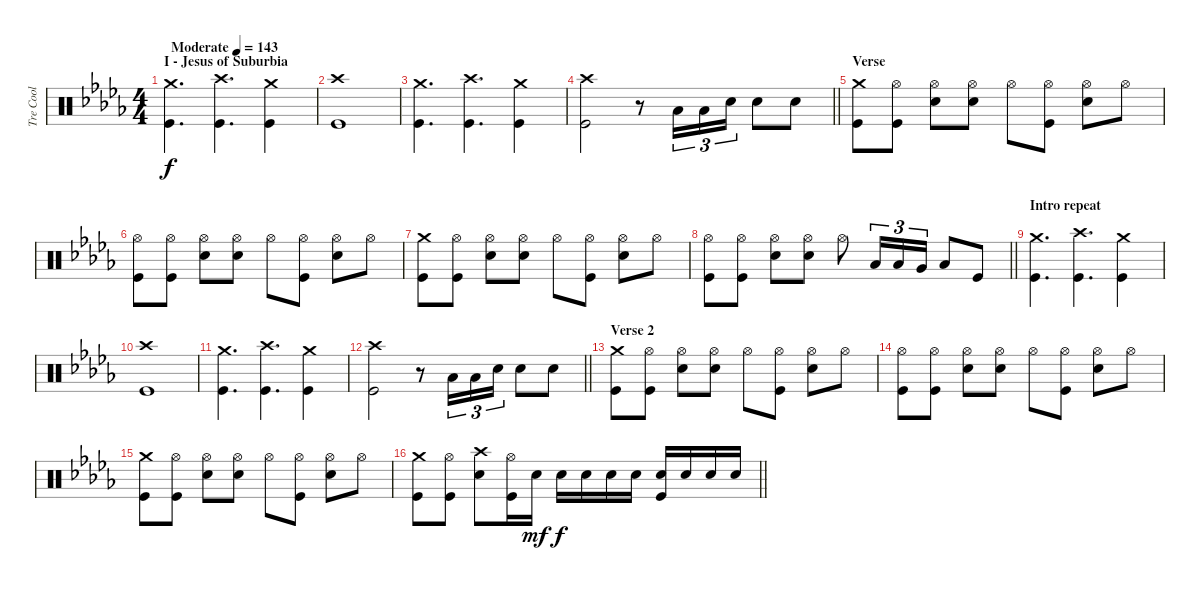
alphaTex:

\track ("Tre Cool" "Tre Cool") {instrument percussion}
\staff {score}
\articulation defaults
\ts (4 4)
\section ("" "I - Jesus of Suburbia")
\tempo (143 "Moderate")
\clef neutral
\ks db
("Crash medium (hit)" "Kick (hit)").4{d dy f} ("Crash high (hit)" "Kick (hit)").4{d} ("Crash medium (hit)" "Kick (hit)").4 |
("Crash high (hit)" "Kick (hit)").1 |
("Crash medium (hit)" "Kick (hit)").4{d} ("Crash high (hit)" "Kick (hit)").4{d} ("Crash medium (hit)" "Kick (hit)").4 |
\barLineRight lightlight
("Crash high (hit)" "Kick (hit)").2 r.8 "Low Tom (hit)".16{tu (3 2)} "Low Tom (hit)".16{tu (3 2)} "Electric Snare (hit)".16{tu (3 2)} "Electric Snare (hit)".8 "Electric Snare (hit)".8 |
\section ("" "Verse")
("Crash medium (hit)" "Kick (hit)").8 ("Hi-Hat (open)" "Kick (hit)").8 ("Hi-Hat (open)" "Electric Snare (hit)").8 ("Hi-Hat (open)" "Electric Snare (hit)").8 "Hi-Hat (open)".8 ("Hi-Hat (open)" "Kick (hit)").8 ("Hi-Hat (open)" "Electric Snare (hit)").8 "Hi-Hat (open)".8 |
("Hi-Hat (open)" "Kick (hit)").8 ("Hi-Hat (open)" "Kick (hit)").8 ("Hi-Hat (open)" "Electric Snare (hit)").8 ("Hi-Hat (open)" "Electric Snare (hit)").8 "Hi-Hat (open)".8 ("Hi-Hat (open)" "Kick (hit)").8 ("Hi-Hat (open)" "Electric Snare (hit)").8 "Hi-Hat (open)".8 |
("Crash medium (hit)" "Kick (hit)").8 ("Hi-Hat (open)" "Kick (hit)").8 ("Hi-Hat (open)" "Electric Snare (hit)").8 ("Hi-Hat (open)" "Electric Snare (hit)").8 "Hi-Hat (open)".8 ("Hi-Hat (open)" "Kick (hit)").8 ("Hi-Hat (open)" "Electric Snare (hit)").8 "Hi-Hat (open)".8 |
\barLineRight lightlight
("Hi-Hat (open)" "Kick (hit)").8 ("Hi-Hat (open)" "Kick (hit)").8 ("Hi-Hat (open)" "Electric Snare (hit)").8 ("Hi-Hat (open)" "Electric Snare (hit)").8 "Hi-Hat (open)".8 "Low Tom (hit)".16{tu (3 2)} "Low Tom (hit)".16{tu (3 2)} "Very Low Tom (hit)".16{tu (3 2)} "Low Floor Tom (hit)".8 "Kick (hit)".8 |
\section ("" "Intro repeat")
("Crash medium (hit)" "Kick (hit)").4{d} ("Crash high (hit)" "Kick (hit)").4{d} ("Crash medium (hit)" "Kick (hit)").4 |
("Crash high (hit)" "Kick (hit)").1 |
("Crash medium (hit)" "Kick (hit)").4{d} ("Crash high (hit)" "Kick (hit)").4{d} ("Crash medium (hit)" "Kick (hit)").4 |
\barLineRight lightlight
("Crash high (hit)" "Kick (hit)").2 r.8 "Low Tom (hit)".16{tu (3 2)} "Low Tom (hit)".16{tu (3 2)} "Electric Snare (hit)".16{tu (3 2)} "Electric Snare (hit)".8 "Electric Snare (hit)".8 |
\section ("" "Verse 2")
("Crash medium (hit)" "Kick (hit)").8 ("Hi-Hat (open)" "Kick (hit)").8 ("Hi-Hat (open)" "Electric Snare (hit)").8 ("Hi-Hat (open)" "Electric Snare (hit)").8 "Hi-Hat (open)".8 ("Hi-Hat (open)" "Kick (hit)").8 ("Hi-Hat (open)" "Electric Snare (hit)").8 "Hi-Hat (open)".8 |
("Hi-Hat (open)" "Kick (hit)").8 ("Hi-Hat (open)" "Kick (hit)").8 ("Hi-Hat (open)" "Electric Snare (hit)").8 ("Hi-Hat (open)" "Electric Snare (hit)").8 "Hi-Hat (open)".8 ("Hi-Hat (open)" "Kick (hit)").8 ("Hi-Hat (open)" "Electric Snare (hit)").8 "Hi-Hat (open)".8 |
("Crash medium (hit)" "Kick (hit)").8 ("Hi-Hat (open)" "Kick (hit)").8 ("Hi-Hat (open)" "Electric Snare (hit)").8 ("Hi-Hat (open)" "Electric Snare (hit)").8 "Hi-Hat (open)".8 ("Hi-Hat (open)" "Kick (hit)").8 ("Hi-Hat (open)" "Electric Snare (hit)").8 "Hi-Hat (open)".8 |
\barLineRight lightlight
("Crash medium (hit)" "Kick (hit)").8 ("Hi-Hat (open)" "Kick (hit)").8 ("Crash high (hit)" "Electric Snare (hit)").8 ("Hi-Hat (open)" "Kick (hit)").16 "Electric Snare (hit)".16{dy mf} "Electric Snare (hit)".16{dy f} "Electric Snare (hit)".16 "Electric Snare (hit)".16 "Electric Snare (hit)".16 ("Electric Snare (hit)" "Kick (hit)").16 "Electric Snare (hit)".16 "Electric Snare (hit)".16 "Electric Snare (hit)".16
